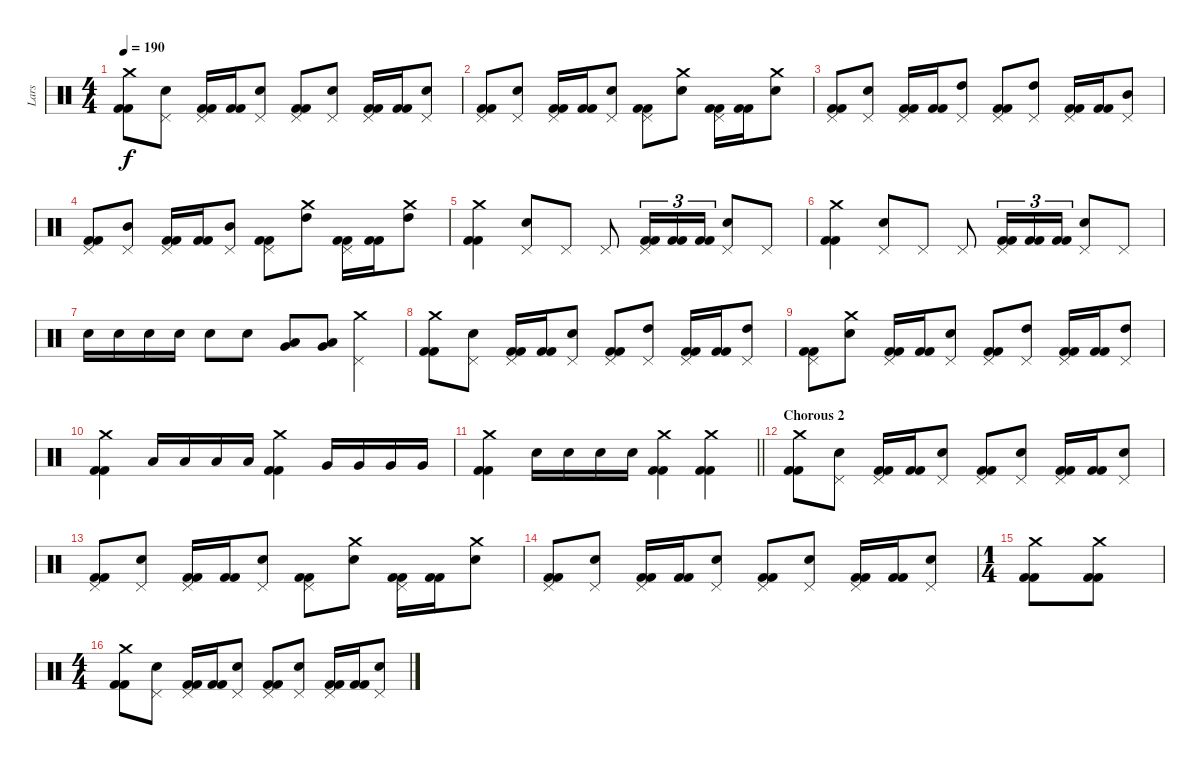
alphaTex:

\track ("Lars" "Lars") {instrument percussion}
\staff {score}
\articulation defaults
\ts (4 4)
\tempo 190
\clef neutral
\ks c
("Crash medium (hit)" "Kick (hit) 2" "Kick (hit) 2").8{dy f} ("Pedal Hi-Hat (hit)" "Electric Snare (hit)").8 ("Pedal Hi-Hat (hit)" "Kick (hit) 2" "Kick (hit) 2").16 ("Kick (hit) 2" "Kick (hit) 2").16 ("Pedal Hi-Hat (hit)" "Electric Snare (hit)").8 ("Pedal Hi-Hat (hit)" "Kick (hit) 2" "Kick (hit) 2").8 ("Pedal Hi-Hat (hit)" "Electric Snare (hit)").8 ("Pedal Hi-Hat (hit)" "Kick (hit) 2" "Kick (hit) 2").16 ("Kick (hit) 2" "Kick (hit) 2").16 ("Pedal Hi-Hat (hit)" "Electric Snare (hit)").8 |
("Pedal Hi-Hat (hit)" "Kick (hit) 2" "Kick (hit) 2").8 ("Pedal Hi-Hat (hit)" "Electric Snare (hit)").8 ("Pedal Hi-Hat (hit)" "Kick (hit) 2" "Kick (hit) 2").16 ("Kick (hit) 2" "Kick (hit) 2").16 ("Pedal Hi-Hat (hit)" "Electric Snare (hit)").8 ("Pedal Hi-Hat (hit)" "Kick (hit) 2" "Kick (hit) 2").8 ("Crash medium (hit)" "Electric Snare (hit)").8 ("Pedal Hi-Hat (hit)" "Kick (hit) 2" "Kick (hit) 2").16 ("Kick (hit) 2" "Kick (hit) 2").16 ("Crash medium (hit)" "Electric Snare (hit)").8 |
("Pedal Hi-Hat (hit)" "Kick (hit) 2" "Kick (hit) 2").8 ("Pedal Hi-Hat (hit)" "Electric Snare (hit)").8 ("Pedal Hi-Hat (hit)" "Kick (hit) 2" "Kick (hit) 2").16 ("Kick (hit) 2" "Kick (hit) 2").16 ("Pedal Hi-Hat (hit)" "High Tom (hit)").8 ("Pedal Hi-Hat (hit)" "Kick (hit) 2" "Kick (hit) 2").8 ("Pedal Hi-Hat (hit)" "High Tom (hit)").8 ("Pedal Hi-Hat (hit)" "Kick (hit) 2" "Kick (hit) 2").16 ("Kick (hit) 2" "Kick (hit) 2").16 ("Pedal Hi-Hat (hit)" "Mid Tom (hit)").8 |
("Pedal Hi-Hat (hit)" "Kick (hit) 2" "Kick (hit) 2").8 ("Pedal Hi-Hat (hit)" "Mid Tom (hit)").8 ("Pedal Hi-Hat (hit)" "Kick (hit) 2" "Kick (hit) 2").16 ("Kick (hit) 2" "Kick (hit) 2").16 ("Pedal Hi-Hat (hit)" "Mid Tom (hit)").8 ("Pedal Hi-Hat (hit)" "Kick (hit) 2" "Kick (hit) 2").8 ("Crash medium (hit)" "High Tom (hit)").8 ("Pedal Hi-Hat (hit)" "Kick (hit) 2" "Kick (hit) 2").16 ("Kick (hit) 2" "Kick (hit) 2").16 ("Crash medium (hit)" "High Tom (hit)").8 |
("Crash medium (hit)" "Kick (hit) 2" "Kick (hit) 2").4 ("Pedal Hi-Hat (hit)" "Electric Snare (hit)").8 "Pedal Hi-Hat (hit)".8 "Pedal Hi-Hat (hit)".8 ("Pedal Hi-Hat (hit)" "Kick (hit) 2" "Kick (hit) 2").16{tu (3 2)} ("Kick (hit) 2" "Kick (hit) 2").16{tu (3 2)} ("Kick (hit) 2" "Kick (hit) 2").16{tu (3 2)} ("Pedal Hi-Hat (hit)" "Electric Snare (hit)").8 "Pedal Hi-Hat (hit)".8 |
("Crash medium (hit)" "Kick (hit) 2" "Kick (hit) 2").4 ("Pedal Hi-Hat (hit)" "Electric Snare (hit)").8 "Pedal Hi-Hat (hit)".8 "Pedal Hi-Hat (hit)".8 ("Pedal Hi-Hat (hit)" "Kick (hit) 2" "Kick (hit) 2").16{tu (3 2)} ("Kick (hit) 2" "Kick (hit) 2").16{tu (3 2)} ("Kick (hit) 2" "Kick (hit) 2").16{tu (3 2)} ("Pedal Hi-Hat (hit)" "Electric Snare (hit)").8 "Pedal Hi-Hat (hit)".8 |
"Electric Snare (hit)".16 "Electric Snare (hit)".16 "Electric Snare (hit)".16 "Electric Snare (hit)".16 "Electric Snare (hit)".8 "Electric Snare (hit)".8 ("Low Tom (hit)" "Very Low Tom (hit)").8 ("Low Tom (hit)" "Very Low Tom (hit)").8 ("Pedal Hi-Hat (hit)" "Crash medium (hit)").4 |
("Crash medium (hit)" "Kick (hit) 2" "Kick (hit) 2").8 ("Pedal Hi-Hat (hit)" "Electric Snare (hit)").8 ("Pedal Hi-Hat (hit)" "Kick (hit) 2" "Kick (hit) 2").16 ("Kick (hit) 2" "Kick (hit) 2").16 ("Pedal Hi-Hat (hit)" "Electric Snare (hit)").8 ("Pedal Hi-Hat (hit)" "Kick (hit) 2" "Kick (hit) 2").8 ("Pedal Hi-Hat (hit)" "High Tom (hit)").8 ("Pedal Hi-Hat (hit)" "Kick (hit) 2" "Kick (hit) 2").16 ("Kick (hit) 2" "Kick (hit) 2").16 ("Pedal Hi-Hat (hit)" "High Tom (hit)").8 |
("Pedal Hi-Hat (hit)" "Kick (hit) 2" "Kick (hit) 2").8 ("Crash medium (hit)" "Electric Snare (hit)").8 ("Pedal Hi-Hat (hit)" "Kick (hit) 2" "Kick (hit) 2").16 ("Kick (hit) 2" "Kick (hit) 2").16 ("Pedal Hi-Hat (hit)" "Electric Snare (hit)").8 ("Pedal Hi-Hat (hit)" "Kick (hit) 2" "Kick (hit) 2").8 ("Pedal Hi-Hat (hit)" "High Tom (hit)").8 ("Pedal Hi-Hat (hit)" "Kick (hit) 2" "Kick (hit) 2").16 ("Kick (hit) 2" "Kick (hit) 2").16 ("Pedal Hi-Hat (hit)" "High Tom (hit)").8 |
("Crash medium (hit)" "Kick (hit) 2" "Kick (hit) 2").4 "Low Tom (hit)".16 "Low Tom (hit)".16 "Low Tom (hit)".16 "Low Tom (hit)".16 ("Crash medium (hit)" "Kick (hit) 2" "Kick (hit) 2").4 "Very Low Tom (hit)".16 "Very Low Tom (hit)".16 "Very Low Tom (hit)".16 "Very Low Tom (hit)".16 |
\barLineRight lightlight
("Crash medium (hit)" "Kick (hit) 2" "Kick (hit) 2").4 "Electric Snare (hit)".16 "Electric Snare (hit)".16 "Electric Snare (hit)".16 "Electric Snare (hit)".16 ("Crash medium (hit)" "Kick (hit) 2" "Kick (hit) 2").4 ("Crash medium (hit)" "Kick (hit) 2" "Kick (hit) 2").4 |
\section ("" "Chorous 2")
("Crash medium (hit)" "Kick (hit) 2" "Kick (hit) 2").8 ("Pedal Hi-Hat (hit)" "Electric Snare (hit)").8 ("Pedal Hi-Hat (hit)" "Kick (hit) 2" "Kick (hit) 2").16 ("Kick (hit) 2" "Kick (hit) 2").16 ("Pedal Hi-Hat (hit)" "Electric Snare (hit)").8 ("Pedal Hi-Hat (hit)" "Kick (hit) 2" "Kick (hit) 2").8 ("Pedal Hi-Hat (hit)" "Electric Snare (hit)").8 ("Pedal Hi-Hat (hit)" "Kick (hit) 2" "Kick (hit) 2").16 ("Kick (hit) 2" "Kick (hit) 2").16 ("Pedal Hi-Hat (hit)" "Electric Snare (hit)").8 |
("Pedal Hi-Hat (hit)" "Kick (hit) 2" "Kick (hit) 2").8 ("Pedal Hi-Hat (hit)" "Electric Snare (hit)").8 ("Pedal Hi-Hat (hit)" "Kick (hit) 2" "Kick (hit) 2").16 ("Kick (hit) 2" "Kick (hit) 2").16 ("Pedal Hi-Hat (hit)" "Electric Snare (hit)").8 ("Pedal Hi-Hat (hit)" "Kick (hit) 2" "Kick (hit) 2").8 ("Crash medium (hit)" "Electric Snare (hit)").8 ("Pedal Hi-Hat (hit)" "Kick (hit) 2" "Kick (hit) 2").16 ("Kick (hit) 2" "Kick (hit) 2").16 ("Crash medium (hit)" "Electric Snare (hit)").8 |
("Pedal Hi-Hat (hit)" "Kick (hit) 2" "Kick (hit) 2").8 ("Pedal Hi-Hat (hit)" "Electric Snare (hit)").8 ("Pedal Hi-Hat (hit)" "Kick (hit) 2" "Kick (hit) 2").16 ("Kick (hit) 2" "Kick (hit) 2").16 ("Pedal Hi-Hat (hit)" "Electric Snare (hit)").8 ("Pedal Hi-Hat (hit)" "Kick (hit) 2" "Kick (hit) 2").8 ("Pedal Hi-Hat (hit)" "Electric Snare (hit)").8 ("Pedal Hi-Hat (hit)" "Kick (hit) 2" "Kick (hit) 2").16 ("Kick (hit) 2" "Kick (hit) 2").16 ("Pedal Hi-Hat (hit)" "Electric Snare (hit)").8 |
\ts (1 4)
("Crash medium (hit)" "Kick (hit) 2" "Kick (hit) 2").8 ("Crash medium (hit)" "Kick (hit) 2" "Kick (hit) 2").8 |
\ts (4 4)
("Crash medium (hit)" "Kick (hit) 2" "Kick (hit) 2").8 ("Pedal Hi-Hat (hit)" "Electric Snare (hit)").8 ("Pedal Hi-Hat (hit)" "Kick (hit) 2" "Kick (hit) 2").16 ("Kick (hit) 2" "Kick (hit) 2").16 ("Pedal Hi-Hat (hit)" "Electric Snare (hit)").8 ("Pedal Hi-Hat (hit)" "Kick (hit) 2" "Kick (hit) 2").8 ("Pedal Hi-Hat (hit)" "Electric Snare (hit)").8 ("Pedal Hi-Hat (hit)" "Kick (hit) 2" "Kick (hit) 2").16 ("Kick (hit) 2" "Kick (hit) 2").16 ("Pedal Hi-Hat (hit)" "Electric Snare (hit)").8
